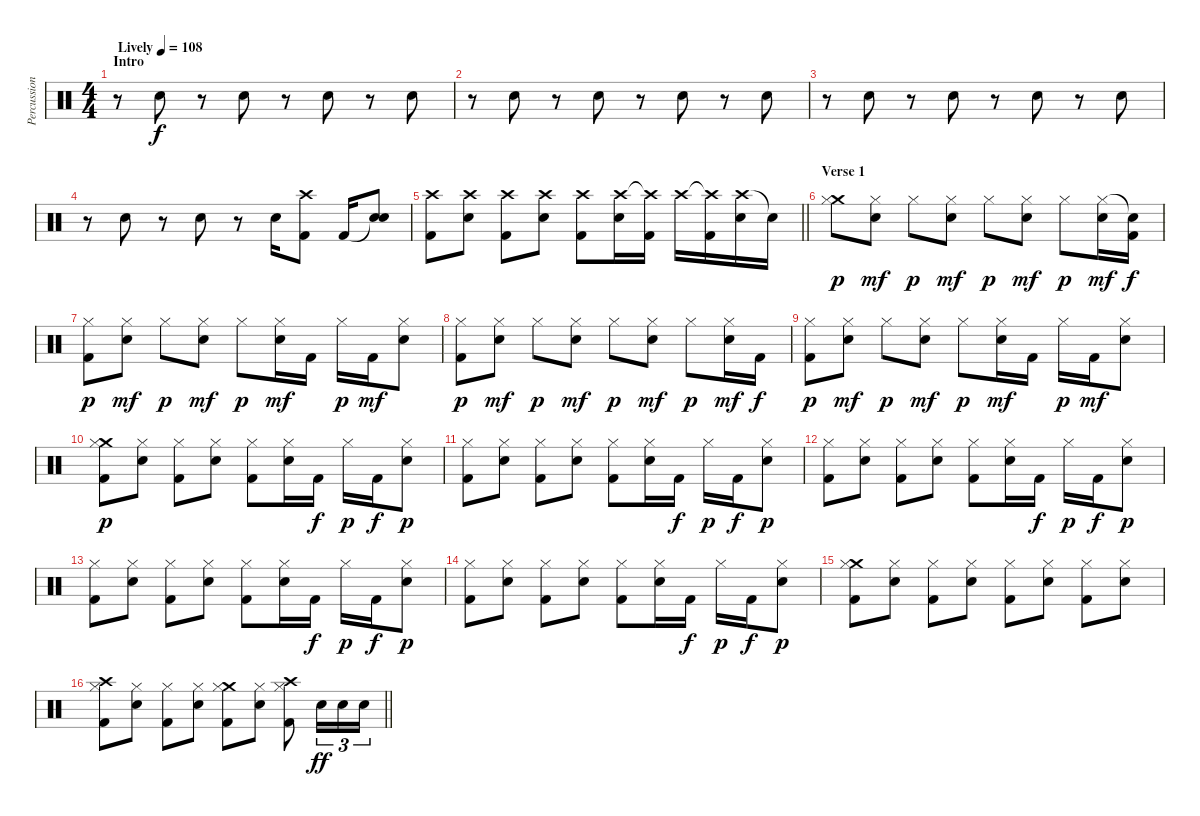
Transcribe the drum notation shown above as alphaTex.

\track ("Percussion" "Percussion") {instrument percussion}
\staff {score}
\articulation defaults
\ts (4 4)
\section ("" "Intro")
\tempo (108 "Lively")
\clef neutral
\ks c
r.8{dy f} "Snare (hit) 2".8 r.8 "Snare (hit) 2".8 r.8 "Snare (hit) 2".8 r.8 "Snare (hit) 2".8 |
r.8 "Snare (hit) 2".8 r.8 "Snare (hit) 2".8 r.8 "Snare (hit) 2".8 r.8 "Snare (hit) 2".8 |
r.8 "Snare (hit) 2".8 r.8 "Snare (hit) 2".8 r.8 "Snare (hit) 2".8 r.8 "Snare (hit) 2".8 |
r.8 "Snare (hit) 2".8 r.8 "Snare (hit) 2".8 r.8 "Snare (hit) 2".16 ("Crash high (hit)" "Kick (hit) 2").8 "Kick (hit) 2".16 ("Snare (hit)"{t} "Snare (hit) 2").8 |
\barLineRight lightlight
("Crash high (hit)" "Kick (hit) 2").8 ("Crash high (hit)" "Snare (hit) 2").8 ("Crash high (hit)" "Kick (hit) 2").8 ("Crash high (hit)" "Snare (hit) 2").8 ("Crash high (hit)" "Kick (hit) 2").8 ("Crash high (hit)" "Snare (hit) 2").16 ("Crash high (hit)"{t} "Kick (hit) 2").16 "Crash high (hit)".16 ("Crash high (hit)"{t} "Kick (hit) 2").16 ("Crash high (hit)" "Snare (hit) 2").16 "Snare (hit)"{t}.16 |
\section ("" "Verse 1")
("Crash medium (hit)" "Hi-Hat (closed)").8{dy p} ("Hi-Hat (closed)" "Snare (hit) 2").8{dy mf} "Hi-Hat (closed)".8{dy p} ("Hi-Hat (closed)" "Snare (hit) 2").8{dy mf} "Hi-Hat (closed)".8{dy p} ("Hi-Hat (closed)" "Snare (hit) 2").8{dy mf} "Hi-Hat (closed)".8{dy p} ("Hi-Hat (closed)" "Snare (hit) 2").16{dy mf} ("Snare (hit)"{t} "Kick (hit) 2").16{dy f} |
("Hi-Hat (closed)" "Kick (hit) 2").8{dy p} ("Hi-Hat (closed)" "Snare (hit) 2").8{dy mf} "Hi-Hat (closed)".8{dy p} ("Hi-Hat (closed)" "Snare (hit) 2").8{dy mf} "Hi-Hat (closed)".8{dy p} ("Hi-Hat (closed)" "Snare (hit) 2").16{dy mf} "Kick (hit) 2".16 "Hi-Hat (closed)".16{dy p} "Kick (hit) 2".16{dy mf} ("Hi-Hat (closed)" "Snare (hit) 2").8 |
("Hi-Hat (closed)" "Kick (hit) 2").8{dy p} ("Hi-Hat (closed)" "Snare (hit) 2").8{dy mf} "Hi-Hat (closed)".8{dy p} ("Hi-Hat (closed)" "Snare (hit) 2").8{dy mf} "Hi-Hat (closed)".8{dy p} ("Hi-Hat (closed)" "Snare (hit) 2").8{dy mf} "Hi-Hat (closed)".8{dy p} ("Hi-Hat (closed)" "Snare (hit) 2").16{dy mf} "Kick (hit) 2".16{dy f} |
("Hi-Hat (closed)" "Kick (hit) 2").8{dy p} ("Hi-Hat (closed)" "Snare (hit) 2").8{dy mf} "Hi-Hat (closed)".8{dy p} ("Hi-Hat (closed)" "Snare (hit) 2").8{dy mf} "Hi-Hat (closed)".8{dy p} ("Hi-Hat (closed)" "Snare (hit) 2").16{dy mf} "Kick (hit) 2".16 "Hi-Hat (closed)".16{dy p} "Kick (hit) 2".16{dy mf} ("Hi-Hat (closed)" "Snare (hit) 2").8 |
("Crash medium (hit)" "Hi-Hat (closed)" "Kick (hit) 2").8{dy p} ("Hi-Hat (closed)" "Snare (hit) 2").8 ("Hi-Hat (closed)" "Kick (hit) 2").8 ("Hi-Hat (closed)" "Snare (hit) 2").8 ("Hi-Hat (closed)" "Kick (hit) 2").8 ("Hi-Hat (closed)" "Snare (hit) 2").16 "Kick (hit) 2".16{dy f} "Hi-Hat (closed)".16{dy p} "Kick (hit) 2".16{dy f} ("Hi-Hat (closed)" "Snare (hit) 2").8{dy p} |
("Hi-Hat (closed)" "Kick (hit) 2").8 ("Hi-Hat (closed)" "Snare (hit) 2").8 ("Hi-Hat (closed)" "Kick (hit) 2").8 ("Hi-Hat (closed)" "Snare (hit) 2").8 ("Hi-Hat (closed)" "Kick (hit) 2").8 ("Hi-Hat (closed)" "Snare (hit) 2").16 "Kick (hit) 2".16{dy f} "Hi-Hat (closed)".16{dy p} "Kick (hit) 2".16{dy f} ("Hi-Hat (closed)" "Snare (hit) 2").8{dy p} |
("Hi-Hat (closed)" "Kick (hit) 2").8 ("Hi-Hat (closed)" "Snare (hit) 2").8 ("Hi-Hat (closed)" "Kick (hit) 2").8 ("Hi-Hat (closed)" "Snare (hit) 2").8 ("Hi-Hat (closed)" "Kick (hit) 2").8 ("Hi-Hat (closed)" "Snare (hit) 2").16 "Kick (hit) 2".16{dy f} "Hi-Hat (closed)".16{dy p} "Kick (hit) 2".16{dy f} ("Hi-Hat (closed)" "Snare (hit) 2").8{dy p} |
("Hi-Hat (closed)" "Kick (hit) 2").8 ("Hi-Hat (closed)" "Snare (hit) 2").8 ("Hi-Hat (closed)" "Kick (hit) 2").8 ("Hi-Hat (closed)" "Snare (hit) 2").8 ("Hi-Hat (closed)" "Kick (hit) 2").8 ("Hi-Hat (closed)" "Snare (hit) 2").16 "Kick (hit) 2".16{dy f} "Hi-Hat (closed)".16{dy p} "Kick (hit) 2".16{dy f} ("Hi-Hat (closed)" "Snare (hit) 2").8{dy p} |
("Hi-Hat (closed)" "Kick (hit) 2").8 ("Hi-Hat (closed)" "Snare (hit) 2").8 ("Hi-Hat (closed)" "Kick (hit) 2").8 ("Hi-Hat (closed)" "Snare (hit) 2").8 ("Hi-Hat (closed)" "Kick (hit) 2").8 ("Hi-Hat (closed)" "Snare (hit) 2").16 "Kick (hit) 2".16{dy f} "Hi-Hat (closed)".16{dy p} "Kick (hit) 2".16{dy f} ("Hi-Hat (closed)" "Snare (hit) 2").8{dy p} |
("Crash medium (hit)" "Hi-Hat (closed)" "Kick (hit) 2").8 ("Hi-Hat (closed)" "Snare (hit) 2").8 ("Hi-Hat (closed)" "Kick (hit) 2").8 ("Hi-Hat (closed)" "Snare (hit) 2").8 ("Hi-Hat (closed)" "Kick (hit) 2").8 ("Hi-Hat (closed)" "Snare (hit) 2").8 ("Hi-Hat (closed)" "Kick (hit) 2").8 ("Hi-Hat (closed)" "Snare (hit) 2").8 |
\barLineRight lightlight
("Crash high (hit)" "Hi-Hat (closed)" "Kick (hit) 2").8 ("Hi-Hat (closed)" "Snare (hit) 2").8 ("Hi-Hat (closed)" "Kick (hit) 2").8 ("Hi-Hat (closed)" "Snare (hit) 2").8 ("Crash medium (hit)" "Hi-Hat (closed)" "Kick (hit) 2").8 ("Hi-Hat (closed)" "Snare (hit) 2").8 ("Crash high (hit)" "Hi-Hat (closed)" "Kick (hit) 2").8 "Snare (hit) 2".16{tu (3 2) dy ff} "Snare (hit) 2".16{tu (3 2)} "Snare (hit) 2".16{tu (3 2)}
